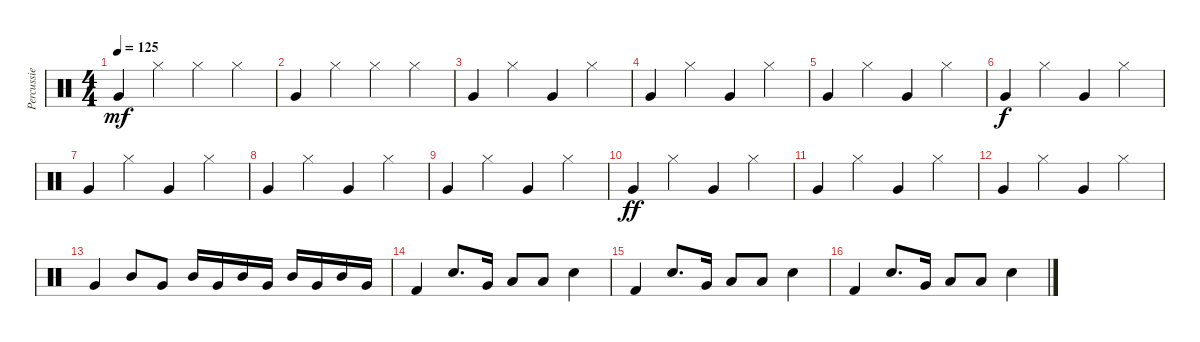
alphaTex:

\track ("Percussie" "Percussie") {instrument percussion}
\staff {score}
\articulation defaults
\ts (4 4)
\tempo 125
\clef neutral
\ks c "Very Low Tom (hit)".4{dy mf} "Hi-Hat (closed)".4 "Hi-Hat (closed)".4 "Hi-Hat (closed)".4
|
"Very Low Tom (hit)".4 "Hi-Hat (closed)".4 "Hi-Hat (closed)".4 "Hi-Hat (closed)".4 |
"Very Low Tom (hit)".4 "Hi-Hat (closed)".4 "Very Low Tom (hit)".4 "Hi-Hat (closed)".4 |
"Very Low Tom (hit)".4 "Hi-Hat (closed)".4 "Very Low Tom (hit)".4 "Hi-Hat (closed)".4 |
"Very Low Tom (hit)".4 "Hi-Hat (closed)".4 "Very Low Tom (hit)".4 "Hi-Hat (closed)".4 |
"Very Low Tom (hit)".4{dy f} "Hi-Hat (closed)".4 "Very Low Tom (hit)".4 "Hi-Hat (closed)".4 |
"Very Low Tom (hit)".4 "Hi-Hat (closed)".4 "Very Low Tom (hit)".4 "Hi-Hat (closed)".4 |
"Very Low Tom (hit)".4 "Hi-Hat (closed)".4 "Very Low Tom (hit)".4 "Hi-Hat (closed)".4 |
"Very Low Tom (hit)".4 "Hi-Hat (closed)".4 "Very Low Tom (hit)".4 "Hi-Hat (closed)".4 |
"Very Low Tom (hit)".4{dy ff} "Hi-Hat (closed)".4 "Very Low Tom (hit)".4 "Hi-Hat (closed)".4 |
"Very Low Tom (hit)".4 "Hi-Hat (closed)".4 "Very Low Tom (hit)".4 "Hi-Hat (closed)".4 |
"Very Low Tom (hit)".4 "Hi-Hat (closed)".4 "Very Low Tom (hit)".4 "Hi-Hat (closed)".4 |
"Very Low Tom (hit)".4 "Mid Tom (hit)".8 "Very Low Tom (hit)".8 "Mid Tom (hit)".16 "Very Low Tom (hit)".16 "Mid Tom (hit)".16 "Very Low Tom (hit)".16 "Mid Tom (hit)".16 "Very Low Tom (hit)".16 "Mid Tom (hit)".16 "Very Low Tom (hit)".16 |
"Kick (hit) 2".4 "Electric Snare (hit)".8{d} "Very Low Tom (hit)".16 "Low Tom (hit)".8 "Low Tom (hit)".8 "Snare (hit) 2".4 |
"Kick (hit) 2".4 "Electric Snare (hit)".8{d} "Very Low Tom (hit)".16 "Low Tom (hit)".8 "Low Tom (hit)".8 "Snare (hit) 2".4 |
"Kick (hit) 2".4 "Electric Snare (hit)".8{d} "Very Low Tom (hit)".16 "Low Tom (hit)".8 "Low Tom (hit)".8 "Snare (hit) 2".4
